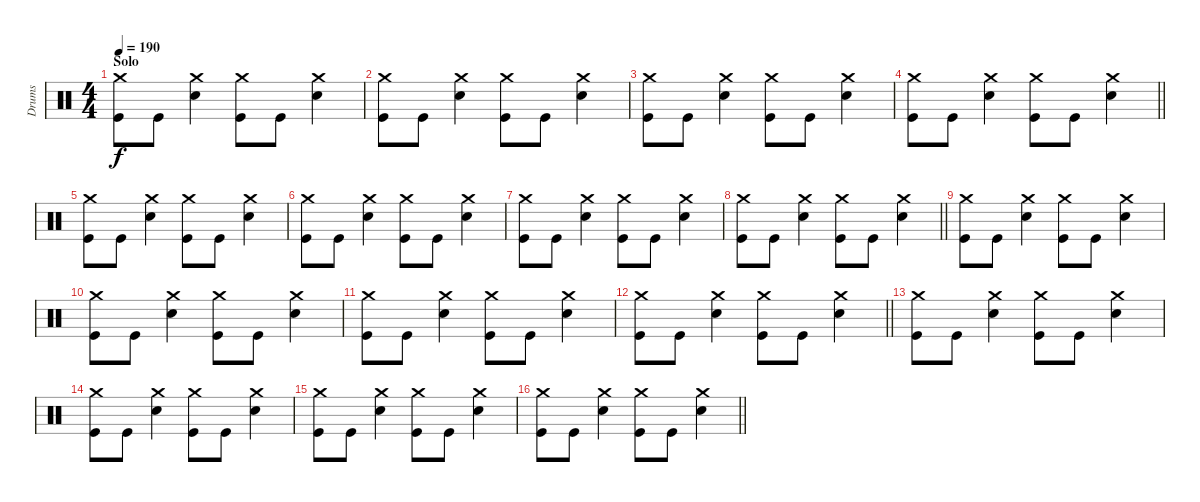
\track ("Drums" "Drums") {instrument percussion}
\staff {score}
\articulation defaults
\ts (4 4)
\section ("" "Solo")
\tempo 190
\clef neutral
\ks c
("Crash medium (hit)" "Kick (hit)").8{dy f} "Kick (hit)".8 ("Crash medium (hit)" "Snare (hit) 2").4 ("Crash medium (hit)" "Kick (hit)").8 "Kick (hit)".8 ("Crash medium (hit)" "Snare (hit) 2").4 |
("Crash medium (hit)" "Kick (hit)").8 "Kick (hit)".8 ("Crash medium (hit)" "Snare (hit) 2").4 ("Crash medium (hit)" "Kick (hit)").8 "Kick (hit)".8 ("Crash medium (hit)" "Snare (hit) 2").4 |
("Crash medium (hit)" "Kick (hit)").8 "Kick (hit)".8 ("Crash medium (hit)" "Snare (hit) 2").4 ("Crash medium (hit)" "Kick (hit)").8 "Kick (hit)".8 ("Crash medium (hit)" "Snare (hit) 2").4 |
\barLineRight lightlight
("Crash medium (hit)" "Kick (hit)").8 "Kick (hit)".8 ("Crash medium (hit)" "Snare (hit) 2").4 ("Crash medium (hit)" "Kick (hit)").8 "Kick (hit)".8 ("Crash medium (hit)" "Snare (hit) 2").4 |
("Crash medium (hit)" "Kick (hit)").8 "Kick (hit)".8 ("Crash medium (hit)" "Snare (hit) 2").4 ("Crash medium (hit)" "Kick (hit)").8 "Kick (hit)".8 ("Crash medium (hit)" "Snare (hit) 2").4 |
("Crash medium (hit)" "Kick (hit)").8 "Kick (hit)".8 ("Crash medium (hit)" "Snare (hit) 2").4 ("Crash medium (hit)" "Kick (hit)").8 "Kick (hit)".8 ("Crash medium (hit)" "Snare (hit) 2").4 |
("Crash medium (hit)" "Kick (hit)").8 "Kick (hit)".8 ("Crash medium (hit)" "Snare (hit) 2").4 ("Crash medium (hit)" "Kick (hit)").8 "Kick (hit)".8 ("Crash medium (hit)" "Snare (hit) 2").4 |
\barLineRight lightlight
("Crash medium (hit)" "Kick (hit)").8 "Kick (hit)".8 ("Crash medium (hit)" "Snare (hit) 2").4 ("Crash medium (hit)" "Kick (hit)").8 "Kick (hit)".8 ("Crash medium (hit)" "Snare (hit) 2").4 |
("Crash medium (hit)" "Kick (hit)").8 "Kick (hit)".8 ("Crash medium (hit)" "Snare (hit) 2").4 ("Crash medium (hit)" "Kick (hit)").8 "Kick (hit)".8 ("Crash medium (hit)" "Snare (hit) 2").4 |
("Crash medium (hit)" "Kick (hit)").8 "Kick (hit)".8 ("Crash medium (hit)" "Snare (hit) 2").4 ("Crash medium (hit)" "Kick (hit)").8 "Kick (hit)".8 ("Crash medium (hit)" "Snare (hit) 2").4 |
("Crash medium (hit)" "Kick (hit)").8 "Kick (hit)".8 ("Crash medium (hit)" "Snare (hit) 2").4 ("Crash medium (hit)" "Kick (hit)").8 "Kick (hit)".8 ("Crash medium (hit)" "Snare (hit) 2").4 |
\barLineRight lightlight
("Crash medium (hit)" "Kick (hit)").8 "Kick (hit)".8 ("Crash medium (hit)" "Snare (hit) 2").4 ("Crash medium (hit)" "Kick (hit)").8 "Kick (hit)".8 ("Crash medium (hit)" "Snare (hit) 2").4 |
("Crash medium (hit)" "Kick (hit)").8 "Kick (hit)".8 ("Crash medium (hit)" "Snare (hit) 2").4 ("Crash medium (hit)" "Kick (hit)").8 "Kick (hit)".8 ("Crash medium (hit)" "Snare (hit) 2").4 |
("Crash medium (hit)" "Kick (hit)").8 "Kick (hit)".8 ("Crash medium (hit)" "Snare (hit) 2").4 ("Crash medium (hit)" "Kick (hit)").8 "Kick (hit)".8 ("Crash medium (hit)" "Snare (hit) 2").4 |
("Crash medium (hit)" "Kick (hit)").8 "Kick (hit)".8 ("Crash medium (hit)" "Snare (hit) 2").4 ("Crash medium (hit)" "Kick (hit)").8 "Kick (hit)".8 ("Crash medium (hit)" "Snare (hit) 2").4 |
\barLineRight lightlight
("Crash medium (hit)" "Kick (hit)").8 "Kick (hit)".8 ("Crash medium (hit)" "Snare (hit) 2").4 ("Crash medium (hit)" "Kick (hit)").8 "Kick (hit)".8 ("Crash medium (hit)" "Snare (hit) 2").4
